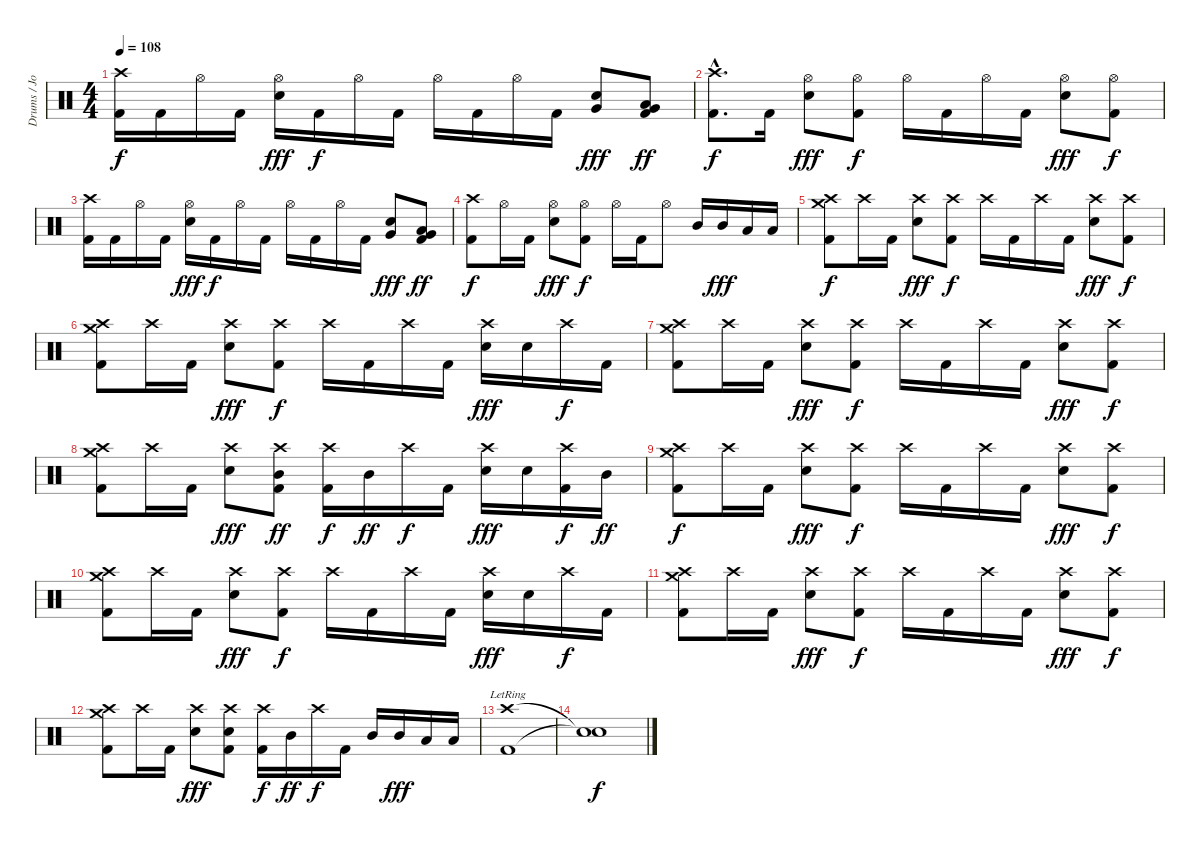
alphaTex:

\track ("Drums / Jon Wysocki" "Drums / Jo") {instrument percussion}
\staff {score}
\articulation defaults
\ts (4 4)
\tempo 108
\clef neutral
\ks c
("Crash high (hit)" "Kick (hit) 2").16{dy f} "Kick (hit) 2".16 "Hi-Hat (open)".16 "Kick (hit) 2".16 ("Hi-Hat (open)" "Electric Snare (hit)").16{dy fff} "Kick (hit) 2".16{dy f} "Hi-Hat (open)".16 "Kick (hit) 2".16 "Hi-Hat (open)".16 "Kick (hit) 2".16 "Hi-Hat (open)".16 "Kick (hit) 2".16 ("Electric Snare (hit)" "Very Low Tom (hit)").8{dy fff} ("Low Tom (hit)" "Very Low Tom (hit)" "Kick (hit) 2").8{dy ff} |
("Crash high (hit)"{hac} "Kick (hit) 2"{hac}).8{d dy f} "Kick (hit) 2".16 ("Hi-Hat (open)" "Electric Snare (hit)").8{dy fff} ("Hi-Hat (open)" "Kick (hit) 2").8{dy f} "Hi-Hat (open)".16 "Kick (hit) 2".16 "Hi-Hat (open)".16 "Kick (hit) 2".16 ("Hi-Hat (open)" "Electric Snare (hit)").8{dy fff} ("Hi-Hat (open)" "Kick (hit) 2").8{dy f} |
("Crash high (hit)" "Kick (hit) 2").16 "Kick (hit) 2".16 "Hi-Hat (open)".16 "Kick (hit) 2".16 ("Hi-Hat (open)" "Electric Snare (hit)").16{dy fff} "Kick (hit) 2".16{dy f} "Hi-Hat (open)".16 "Kick (hit) 2".16 "Hi-Hat (open)".16 "Kick (hit) 2".16 "Hi-Hat (open)".16 "Kick (hit) 2".16 ("Electric Snare (hit)" "Very Low Tom (hit)").8{dy fff} ("Low Tom (hit)" "Very Low Tom (hit)" "Kick (hit) 2").8{dy ff} |
("Crash high (hit)" "Kick (hit) 2").8{dy f} "Hi-Hat (open)".16 "Kick (hit) 2".16 ("Hi-Hat (open)" "Electric Snare (hit)").8{dy fff} ("Hi-Hat (open)" "Kick (hit) 2").8{dy f} "Hi-Hat (open)".16 "Kick (hit) 2".16 "Hi-Hat (open)".8 "Mid Tom (hit)".16 "Mid Tom (hit)".16{dy fff} "Low Tom (hit)".16 "Low Tom (hit)".16 |
("Crash high (hit)" "Crash medium (hit)" "Kick (hit) 2").8{dy f} "Crash high (hit)".16 "Kick (hit) 2".16 ("Crash high (hit)" "Electric Snare (hit)").8{dy fff} ("Crash high (hit)" "Kick (hit) 2").8{dy f} "Crash high (hit)".16 "Kick (hit) 2".16 "Crash high (hit)".16 "Kick (hit) 2".16 ("Crash high (hit)" "Electric Snare (hit)").8{dy fff} ("Crash high (hit)" "Kick (hit) 2").8{dy f} |
("Crash high (hit)" "Crash medium (hit)" "Kick (hit) 2").8 "Crash high (hit)".16 "Kick (hit) 2".16 ("Crash high (hit)" "Electric Snare (hit)").8{dy fff} ("Crash high (hit)" "Kick (hit) 2").8{dy f} "Crash high (hit)".16 "Kick (hit) 2".16 "Crash high (hit)".16 "Kick (hit) 2".16 ("Crash high (hit)" "Electric Snare (hit)").16{dy fff} "Electric Snare (hit)".16 "Crash high (hit)".16{dy f} "Kick (hit) 2".16 |
("Crash high (hit)" "Crash medium (hit)" "Kick (hit) 2").8 "Crash high (hit)".16 "Kick (hit) 2".16 ("Crash high (hit)" "Electric Snare (hit)").8{dy fff} ("Crash high (hit)" "Kick (hit) 2").8{dy f} "Crash high (hit)".16 "Kick (hit) 2".16 "Crash high (hit)".16 "Kick (hit) 2".16 ("Crash high (hit)" "Electric Snare (hit)").8{dy fff} ("Crash high (hit)" "Kick (hit) 2").8{dy f} |
("Crash high (hit)" "Crash medium (hit)" "Kick (hit) 2").8 "Crash high (hit)".16 "Kick (hit) 2".16 ("Crash high (hit)" "Electric Snare (hit)").8{dy fff} ("Crash high (hit)" "Mid Tom (hit)" "Kick (hit) 2").8{dy ff} ("Crash high (hit)" "Kick (hit) 2").16{dy f} "Mid Tom (hit)".16{dy ff} "Crash high (hit)".16{dy f} "Kick (hit) 2".16 ("Crash high (hit)" "Electric Snare (hit)").16{dy fff} "Electric Snare (hit)".16 ("Crash high (hit)" "Kick (hit) 2").16{dy f} "Mid Tom (hit)".16{dy ff} |
("Crash high (hit)" "Crash medium (hit)" "Kick (hit) 2").8{dy f} "Crash high (hit)".16 "Kick (hit) 2".16 ("Crash high (hit)" "Electric Snare (hit)").8{dy fff} ("Crash high (hit)" "Kick (hit) 2").8{dy f} "Crash high (hit)".16 "Kick (hit) 2".16 "Crash high (hit)".16 "Kick (hit) 2".16 ("Crash high (hit)" "Electric Snare (hit)").8{dy fff} ("Crash high (hit)" "Kick (hit) 2").8{dy f} |
("Crash high (hit)" "Crash medium (hit)" "Kick (hit) 2").8 "Crash high (hit)".16 "Kick (hit) 2".16 ("Crash high (hit)" "Electric Snare (hit)").8{dy fff} ("Crash high (hit)" "Kick (hit) 2").8{dy f} "Crash high (hit)".16 "Kick (hit) 2".16 "Crash high (hit)".16 "Kick (hit) 2".16 ("Crash high (hit)" "Electric Snare (hit)").16{dy fff} "Electric Snare (hit)".16 "Crash high (hit)".16{dy f} "Kick (hit) 2".16 |
("Crash high (hit)" "Crash medium (hit)" "Kick (hit) 2").8 "Crash high (hit)".16 "Kick (hit) 2".16 ("Crash high (hit)" "Electric Snare (hit)").8{dy fff} ("Crash high (hit)" "Kick (hit) 2").8{dy f} "Crash high (hit)".16 "Kick (hit) 2".16 "Crash high (hit)".16 "Kick (hit) 2".16 ("Crash high (hit)" "Electric Snare (hit)").8{dy fff} ("Crash high (hit)" "Kick (hit) 2").8{dy f} |
("Crash high (hit)" "Crash medium (hit)" "Kick (hit) 2").8 "Crash high (hit)".16 "Kick (hit) 2".16 ("Crash high (hit)" "Electric Snare (hit)").8{dy fff} ("Crash high (hit)" "Electric Snare (hit)" "Kick (hit) 2").8 ("Crash high (hit)" "Kick (hit) 2").16{dy f} "Mid Tom (hit)".16{dy ff} "Crash high (hit)".16{dy f} "Kick (hit) 2".16 "Mid Tom (hit)".16 "Mid Tom (hit)".16{dy fff} "Low Tom (hit)".16 "Low Tom (hit)".16 |
("Crash high (hit)"{lr} "Kick (hit) 2"{lr}).1 |
("Snare (hit)"{t} "Snare (hit)"{t}).1{dy f}
